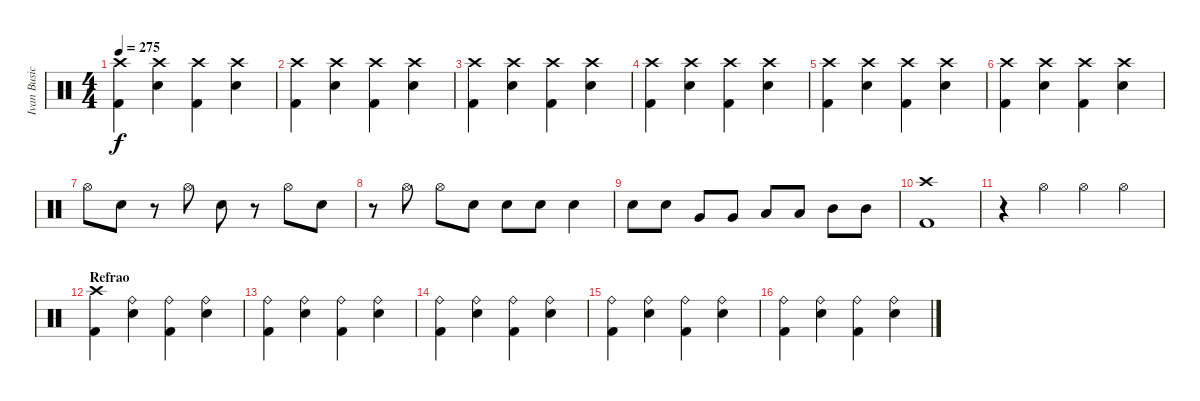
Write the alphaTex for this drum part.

\track ("Ivan Busic" "Ivan Busic") {instrument percussion}
\staff {score}
\articulation defaults
\ts (4 4)
\tempo 275
\clef neutral
\ks c
("Crash high (hit)" "Kick (hit) 2").4{dy f} ("Crash high (hit)" "Electric Snare (hit)").4 ("Crash high (hit)" "Kick (hit) 2").4 ("Crash high (hit)" "Electric Snare (hit)").4 |
("Crash high (hit)" "Kick (hit) 2").4 ("Crash high (hit)" "Electric Snare (hit)").4 ("Crash high (hit)" "Kick (hit) 2").4 ("Crash high (hit)" "Electric Snare (hit)").4 |
("Crash high (hit)" "Kick (hit) 2").4 ("Crash high (hit)" "Electric Snare (hit)").4 ("Crash high (hit)" "Kick (hit) 2").4 ("Crash high (hit)" "Electric Snare (hit)").4 |
("Crash high (hit)" "Kick (hit) 2").4 ("Crash high (hit)" "Electric Snare (hit)").4 ("Crash high (hit)" "Kick (hit) 2").4 ("Crash high (hit)" "Electric Snare (hit)").4 |
("Crash high (hit)" "Kick (hit) 2").4 ("Crash high (hit)" "Electric Snare (hit)").4 ("Crash high (hit)" "Kick (hit) 2").4 ("Crash high (hit)" "Electric Snare (hit)").4 |
("Crash high (hit)" "Kick (hit) 2").4 ("Crash high (hit)" "Electric Snare (hit)").4 ("Crash high (hit)" "Kick (hit) 2").4 ("Crash high (hit)" "Electric Snare (hit)").4 |
"Hi-Hat (open)".8 "Electric Snare (hit)".8 r.8 "Hi-Hat (open)".8 "Electric Snare (hit)".8 r.8 "Hi-Hat (open)".8 "Electric Snare (hit)".8 |
r.8 "Hi-Hat (open)".8 "Hi-Hat (open)".8 "Electric Snare (hit)".8 "Electric Snare (hit)".8 "Electric Snare (hit)".8 "Electric Snare (hit)".4 |
"Electric Snare (hit)".8 "Electric Snare (hit)".8 "Very Low Tom (hit)".8 "Very Low Tom (hit)".8 "Low Tom (hit)".8 "Low Tom (hit)".8 "Mid Tom (hit)".8 "Mid Tom (hit)".8 |
("Crash high (hit)" "Kick (hit) 2").1 |
r.4 "Hi-Hat (open)".4 "Hi-Hat (open)".4 "Hi-Hat (open)".4 |
\section ("" "Refrao")
("Crash high (hit)" "Kick (hit) 2").4 ("Ride (bell)" "Electric Snare (hit)").4 ("Ride (bell)" "Kick (hit) 2").4 ("Ride (bell)" "Electric Snare (hit)").4 |
("Ride (bell)" "Kick (hit) 2").4 ("Ride (bell)" "Electric Snare (hit)").4 ("Ride (bell)" "Kick (hit) 2").4 ("Ride (bell)" "Electric Snare (hit)").4 |
("Ride (bell)" "Kick (hit) 2").4 ("Ride (bell)" "Electric Snare (hit)").4 ("Ride (bell)" "Kick (hit) 2").4 ("Ride (bell)" "Electric Snare (hit)").4 |
("Ride (bell)" "Kick (hit) 2").4 ("Ride (bell)" "Electric Snare (hit)").4 ("Ride (bell)" "Kick (hit) 2").4 ("Ride (bell)" "Electric Snare (hit)").4 |
("Ride (bell)" "Kick (hit) 2").4 ("Ride (bell)" "Electric Snare (hit)").4 ("Ride (bell)" "Kick (hit) 2").4 ("Ride (bell)" "Electric Snare (hit)").4
